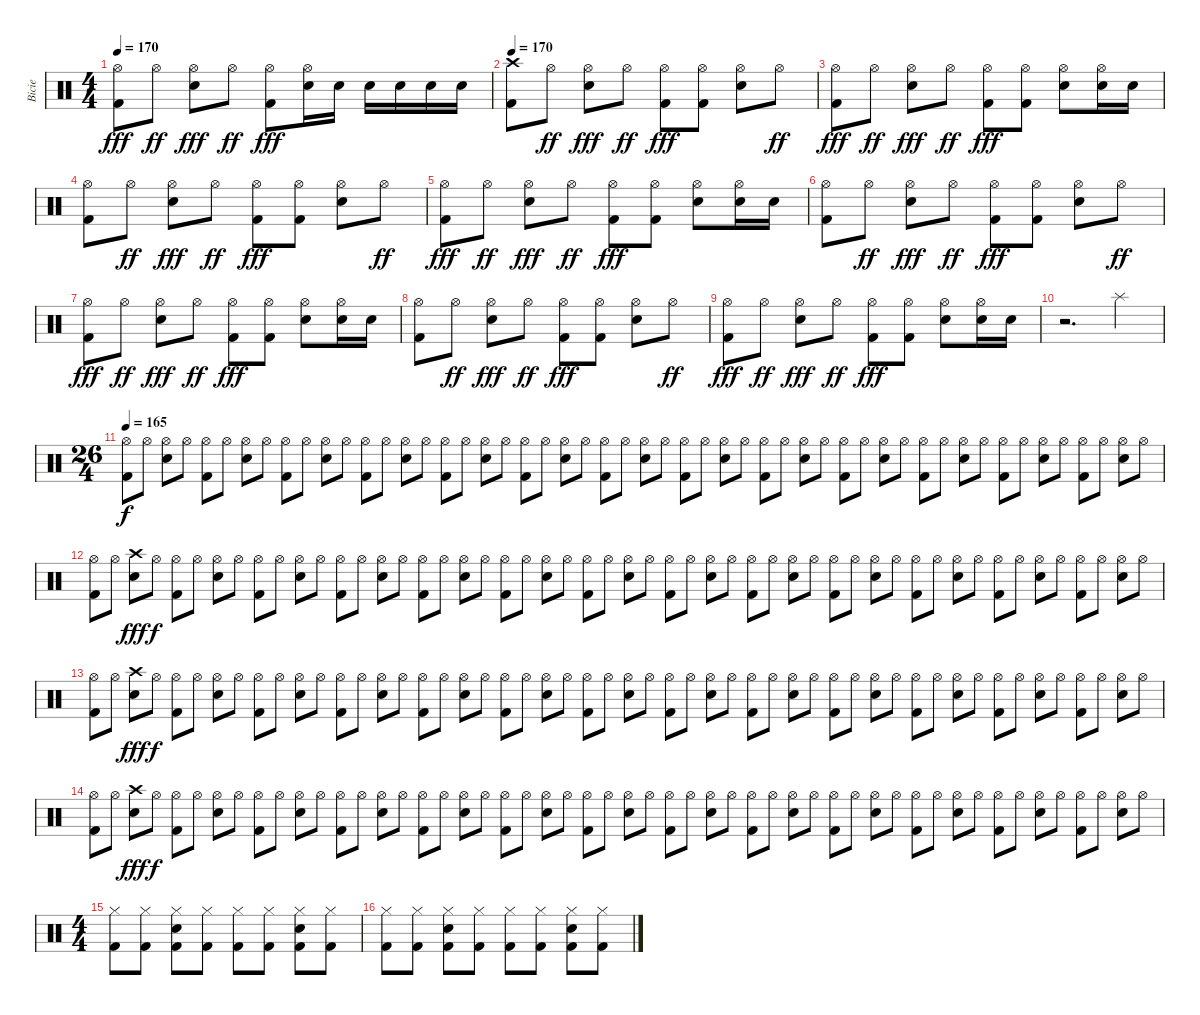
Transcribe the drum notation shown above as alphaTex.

\track ("Bicie" "Bicie") {instrument percussion}
\staff {score}
\articulation defaults
\ts (4 4)
\tempo 170
\clef neutral
\ks c
("Hi-Hat (open)" "Kick (hit) 2").8{dy fff} "Hi-Hat (open)".8{dy ff} ("Hi-Hat (open)" "Electric Snare (hit)").8{dy fff} "Hi-Hat (open)".8{dy ff} ("Hi-Hat (open)" "Kick (hit) 2").8{dy fff} ("Hi-Hat (open)" "Electric Snare (hit)").16 "Electric Snare (hit)".16 "Electric Snare (hit)".16 "Electric Snare (hit)".16 "Electric Snare (hit)".16 "Electric Snare (hit)".16 |
\tempo 170
("Crash high (hit)" "Kick (hit) 2").8 "Hi-Hat (open)".8{dy ff} ("Hi-Hat (open)" "Electric Snare (hit)").8{dy fff} "Hi-Hat (open)".8{dy ff} ("Hi-Hat (open)" "Kick (hit) 2").8{dy fff} ("Hi-Hat (open)" "Kick (hit) 2").8 ("Hi-Hat (open)" "Electric Snare (hit)").8 "Hi-Hat (open)".8{dy ff} |
("Hi-Hat (open)" "Kick (hit) 2").8{dy fff} "Hi-Hat (open)".8{dy ff} ("Hi-Hat (open)" "Electric Snare (hit)").8{dy fff} "Hi-Hat (open)".8{dy ff} ("Hi-Hat (open)" "Kick (hit) 2").8{dy fff} ("Hi-Hat (open)" "Kick (hit) 2").8 ("Hi-Hat (open)" "Electric Snare (hit)").8 ("Hi-Hat (open)" "Electric Snare (hit)").16 "Electric Snare (hit)".16 |
("Hi-Hat (open)" "Kick (hit) 2").8 "Hi-Hat (open)".8{dy ff} ("Hi-Hat (open)" "Electric Snare (hit)").8{dy fff} "Hi-Hat (open)".8{dy ff} ("Hi-Hat (open)" "Kick (hit) 2").8{dy fff} ("Hi-Hat (open)" "Kick (hit) 2").8 ("Hi-Hat (open)" "Electric Snare (hit)").8 "Hi-Hat (open)".8{dy ff} |
("Hi-Hat (open)" "Kick (hit) 2").8{dy fff} "Hi-Hat (open)".8{dy ff} ("Hi-Hat (open)" "Electric Snare (hit)").8{dy fff} "Hi-Hat (open)".8{dy ff} ("Hi-Hat (open)" "Kick (hit) 2").8{dy fff} ("Hi-Hat (open)" "Kick (hit) 2").8 ("Hi-Hat (open)" "Electric Snare (hit)").8 ("Hi-Hat (open)" "Electric Snare (hit)").16 "Electric Snare (hit)".16 |
("Hi-Hat (open)" "Kick (hit) 2").8 "Hi-Hat (open)".8{dy ff} ("Hi-Hat (open)" "Electric Snare (hit)").8{dy fff} "Hi-Hat (open)".8{dy ff} ("Hi-Hat (open)" "Kick (hit) 2").8{dy fff} ("Hi-Hat (open)" "Kick (hit) 2").8 ("Hi-Hat (open)" "Electric Snare (hit)").8 "Hi-Hat (open)".8{dy ff} |
("Hi-Hat (open)" "Kick (hit) 2").8{dy fff} "Hi-Hat (open)".8{dy ff} ("Hi-Hat (open)" "Electric Snare (hit)").8{dy fff} "Hi-Hat (open)".8{dy ff} ("Hi-Hat (open)" "Kick (hit) 2").8{dy fff} ("Hi-Hat (open)" "Kick (hit) 2").8 ("Hi-Hat (open)" "Electric Snare (hit)").8 ("Hi-Hat (open)" "Electric Snare (hit)").16 "Electric Snare (hit)".16 |
("Hi-Hat (open)" "Kick (hit) 2").8 "Hi-Hat (open)".8{dy ff} ("Hi-Hat (open)" "Electric Snare (hit)").8{dy fff} "Hi-Hat (open)".8{dy ff} ("Hi-Hat (open)" "Kick (hit) 2").8{dy fff} ("Hi-Hat (open)" "Kick (hit) 2").8 ("Hi-Hat (open)" "Electric Snare (hit)").8 "Hi-Hat (open)".8{dy ff} |
("Hi-Hat (open)" "Kick (hit) 2").8{dy fff} "Hi-Hat (open)".8{dy ff} ("Hi-Hat (open)" "Electric Snare (hit)").8{dy fff} "Hi-Hat (open)".8{dy ff} ("Hi-Hat (open)" "Kick (hit) 2").8{dy fff} ("Hi-Hat (open)" "Kick (hit) 2").8 ("Hi-Hat (open)" "Electric Snare (hit)").8 ("Hi-Hat (open)" "Electric Snare (hit)").16 "Electric Snare (hit)".16 |
r.2{d} "Splash (hit)".4 |
\ts (26 4)
\tempo 165
("Hi-Hat (open)" "Kick (hit) 2").8{dy f} "Hi-Hat (open)".8 ("Hi-Hat (open)" "Electric Snare (hit)").8 "Hi-Hat (open)".8 ("Hi-Hat (open)" "Kick (hit) 2").8 "Hi-Hat (open)".8 ("Hi-Hat (open)" "Electric Snare (hit)").8 "Hi-Hat (open)".8 ("Hi-Hat (open)" "Kick (hit) 2").8 "Hi-Hat (open)".8 ("Hi-Hat (open)" "Electric Snare (hit)").8 "Hi-Hat (open)".8 ("Hi-Hat (open)" "Kick (hit) 2").8 "Hi-Hat (open)".8 ("Hi-Hat (open)" "Electric Snare (hit)").8 "Hi-Hat (open)".8 ("Hi-Hat (open)" "Kick (hit) 2").8 "Hi-Hat (open)".8 ("Hi-Hat (open)" "Electric Snare (hit)").8 "Hi-Hat (open)".8 ("Hi-Hat (open)" "Kick (hit) 2").8 "Hi-Hat (open)".8 ("Hi-Hat (open)" "Electric Snare (hit)").8 "Hi-Hat (open)".8 ("Hi-Hat (open)" "Kick (hit) 2").8 "Hi-Hat (open)".8 ("Hi-Hat (open)" "Electric Snare (hit)").8 "Hi-Hat (open)".8 ("Hi-Hat (open)" "Kick (hit) 2").8 "Hi-Hat (open)".8 ("Hi-Hat (open)" "Electric Snare (hit)").8 "Hi-Hat (open)".8 ("Hi-Hat (open)" "Kick (hit) 2").8 "Hi-Hat (open)".8 ("Hi-Hat (open)" "Electric Snare (hit)").8 "Hi-Hat (open)".8 ("Hi-Hat (open)" "Kick (hit) 2").8 "Hi-Hat (open)".8 ("Hi-Hat (open)" "Electric Snare (hit)").8 "Hi-Hat (open)".8 ("Hi-Hat (open)" "Kick (hit) 2").8 "Hi-Hat (open)".8 ("Hi-Hat (open)" "Electric Snare (hit)").8 "Hi-Hat (open)".8 ("Hi-Hat (open)" "Kick (hit) 2").8 "Hi-Hat (open)".8 ("Hi-Hat (open)" "Electric Snare (hit)").8 "Hi-Hat (open)".8 ("Hi-Hat (open)" "Kick (hit) 2").8 "Hi-Hat (open)".8 ("Hi-Hat (open)" "Electric Snare (hit)").8 "Hi-Hat (open)".8 |
("Hi-Hat (open)" "Kick (hit) 2").8 "Hi-Hat (open)".8 ("Crash high (hit)" "Electric Snare (hit)").8{dy fff} "Hi-Hat (open)".8{dy f} ("Hi-Hat (open)" "Kick (hit) 2").8 "Hi-Hat (open)".8 ("Hi-Hat (open)" "Electric Snare (hit)").8 "Hi-Hat (open)".8 ("Hi-Hat (open)" "Kick (hit) 2").8 "Hi-Hat (open)".8 ("Hi-Hat (open)" "Electric Snare (hit)").8 "Hi-Hat (open)".8 ("Hi-Hat (open)" "Kick (hit) 2").8 "Hi-Hat (open)".8 ("Hi-Hat (open)" "Electric Snare (hit)").8 "Hi-Hat (open)".8 ("Hi-Hat (open)" "Kick (hit) 2").8 "Hi-Hat (open)".8 ("Hi-Hat (open)" "Electric Snare (hit)").8 "Hi-Hat (open)".8 ("Hi-Hat (open)" "Kick (hit) 2").8 "Hi-Hat (open)".8 ("Hi-Hat (open)" "Electric Snare (hit)").8 "Hi-Hat (open)".8 ("Hi-Hat (open)" "Kick (hit) 2").8 "Hi-Hat (open)".8 ("Hi-Hat (open)" "Electric Snare (hit)").8 "Hi-Hat (open)".8 ("Hi-Hat (open)" "Kick (hit) 2").8 "Hi-Hat (open)".8 ("Hi-Hat (open)" "Electric Snare (hit)").8 "Hi-Hat (open)".8 ("Hi-Hat (open)" "Kick (hit) 2").8 "Hi-Hat (open)".8 ("Hi-Hat (open)" "Electric Snare (hit)").8 "Hi-Hat (open)".8 ("Hi-Hat (open)" "Kick (hit) 2").8 "Hi-Hat (open)".8 ("Hi-Hat (open)" "Electric Snare (hit)").8 "Hi-Hat (open)".8 ("Hi-Hat (open)" "Kick (hit) 2").8 "Hi-Hat (open)".8 ("Hi-Hat (open)" "Electric Snare (hit)").8 "Hi-Hat (open)".8 ("Hi-Hat (open)" "Kick (hit) 2").8 "Hi-Hat (open)".8 ("Hi-Hat (open)" "Electric Snare (hit)").8 "Hi-Hat (open)".8 ("Hi-Hat (open)" "Kick (hit) 2").8 "Hi-Hat (open)".8 ("Hi-Hat (open)" "Electric Snare (hit)").8 "Hi-Hat (open)".8 |
("Hi-Hat (open)" "Kick (hit) 2").8 "Hi-Hat (open)".8 ("Crash high (hit)" "Electric Snare (hit)").8{dy fff} "Hi-Hat (open)".8{dy f} ("Hi-Hat (open)" "Kick (hit) 2").8 "Hi-Hat (open)".8 ("Hi-Hat (open)" "Electric Snare (hit)").8 "Hi-Hat (open)".8 ("Hi-Hat (open)" "Kick (hit) 2").8 "Hi-Hat (open)".8 ("Hi-Hat (open)" "Electric Snare (hit)").8 "Hi-Hat (open)".8 ("Hi-Hat (open)" "Kick (hit) 2").8 "Hi-Hat (open)".8 ("Hi-Hat (open)" "Electric Snare (hit)").8 "Hi-Hat (open)".8 ("Hi-Hat (open)" "Kick (hit) 2").8 "Hi-Hat (open)".8 ("Hi-Hat (open)" "Electric Snare (hit)").8 "Hi-Hat (open)".8 ("Hi-Hat (open)" "Kick (hit) 2").8 "Hi-Hat (open)".8 ("Hi-Hat (open)" "Electric Snare (hit)").8 "Hi-Hat (open)".8 ("Hi-Hat (open)" "Kick (hit) 2").8 "Hi-Hat (open)".8 ("Hi-Hat (open)" "Electric Snare (hit)").8 "Hi-Hat (open)".8 ("Hi-Hat (open)" "Kick (hit) 2").8 "Hi-Hat (open)".8 ("Hi-Hat (open)" "Electric Snare (hit)").8 "Hi-Hat (open)".8 ("Hi-Hat (open)" "Kick (hit) 2").8 "Hi-Hat (open)".8 ("Hi-Hat (open)" "Electric Snare (hit)").8 "Hi-Hat (open)".8 ("Hi-Hat (open)" "Kick (hit) 2").8 "Hi-Hat (open)".8 ("Hi-Hat (open)" "Electric Snare (hit)").8 "Hi-Hat (open)".8 ("Hi-Hat (open)" "Kick (hit) 2").8 "Hi-Hat (open)".8 ("Hi-Hat (open)" "Electric Snare (hit)").8 "Hi-Hat (open)".8 ("Hi-Hat (open)" "Kick (hit) 2").8 "Hi-Hat (open)".8 ("Hi-Hat (open)" "Electric Snare (hit)").8 "Hi-Hat (open)".8 ("Hi-Hat (open)" "Kick (hit) 2").8 "Hi-Hat (open)".8 ("Hi-Hat (open)" "Electric Snare (hit)").8 "Hi-Hat (open)".8 |
("Hi-Hat (open)" "Kick (hit) 2").8 "Hi-Hat (open)".8 ("Crash high (hit)" "Electric Snare (hit)").8{dy fff} "Hi-Hat (open)".8{dy f} ("Hi-Hat (open)" "Kick (hit) 2").8 "Hi-Hat (open)".8 ("Hi-Hat (open)" "Electric Snare (hit)").8 "Hi-Hat (open)".8 ("Hi-Hat (open)" "Kick (hit) 2").8 "Hi-Hat (open)".8 ("Hi-Hat (open)" "Electric Snare (hit)").8 "Hi-Hat (open)".8 ("Hi-Hat (open)" "Kick (hit) 2").8 "Hi-Hat (open)".8 ("Hi-Hat (open)" "Electric Snare (hit)").8 "Hi-Hat (open)".8 ("Hi-Hat (open)" "Kick (hit) 2").8 "Hi-Hat (open)".8 ("Hi-Hat (open)" "Electric Snare (hit)").8 "Hi-Hat (open)".8 ("Hi-Hat (open)" "Kick (hit) 2").8 "Hi-Hat (open)".8 ("Hi-Hat (open)" "Electric Snare (hit)").8 "Hi-Hat (open)".8 ("Hi-Hat (open)" "Kick (hit) 2").8 "Hi-Hat (open)".8 ("Hi-Hat (open)" "Electric Snare (hit)").8 "Hi-Hat (open)".8 ("Hi-Hat (open)" "Kick (hit) 2").8 "Hi-Hat (open)".8 ("Hi-Hat (open)" "Electric Snare (hit)").8 "Hi-Hat (open)".8 ("Hi-Hat (open)" "Kick (hit) 2").8 "Hi-Hat (open)".8 ("Hi-Hat (open)" "Electric Snare (hit)").8 "Hi-Hat (open)".8 ("Hi-Hat (open)" "Kick (hit) 2").8 "Hi-Hat (open)".8 ("Hi-Hat (open)" "Electric Snare (hit)").8 "Hi-Hat (open)".8 ("Hi-Hat (open)" "Kick (hit) 2").8 "Hi-Hat (open)".8 ("Hi-Hat (open)" "Electric Snare (hit)").8 "Hi-Hat (open)".8 ("Hi-Hat (open)" "Kick (hit) 2").8 "Hi-Hat (open)".8 ("Hi-Hat (open)" "Electric Snare (hit)").8 "Hi-Hat (open)".8 ("Hi-Hat (open)" "Kick (hit) 2").8 "Hi-Hat (open)".8 ("Hi-Hat (open)" "Electric Snare (hit)").8 "Hi-Hat (open)".8 |
\ts (4 4)
("Hi-Hat (closed)" "Kick (hit) 2").8 ("Hi-Hat (closed)" "Kick (hit) 2").8 ("Electric Snare (hit)" "Hi-Hat (closed)" "Kick (hit) 2").8 ("Hi-Hat (closed)" "Kick (hit) 2").8 ("Hi-Hat (closed)" "Kick (hit) 2").8 ("Hi-Hat (closed)" "Kick (hit) 2").8 ("Electric Snare (hit)" "Hi-Hat (closed)" "Kick (hit) 2").8 ("Hi-Hat (closed)" "Kick (hit) 2").8 |
("Hi-Hat (closed)" "Kick (hit) 2").8 ("Hi-Hat (closed)" "Kick (hit) 2").8 ("Electric Snare (hit)" "Hi-Hat (closed)" "Kick (hit) 2").8 ("Hi-Hat (closed)" "Kick (hit) 2").8 ("Hi-Hat (closed)" "Kick (hit) 2").8 ("Hi-Hat (closed)" "Kick (hit) 2").8 ("Electric Snare (hit)" "Hi-Hat (closed)" "Kick (hit) 2").8 ("Hi-Hat (closed)" "Kick (hit) 2").8
